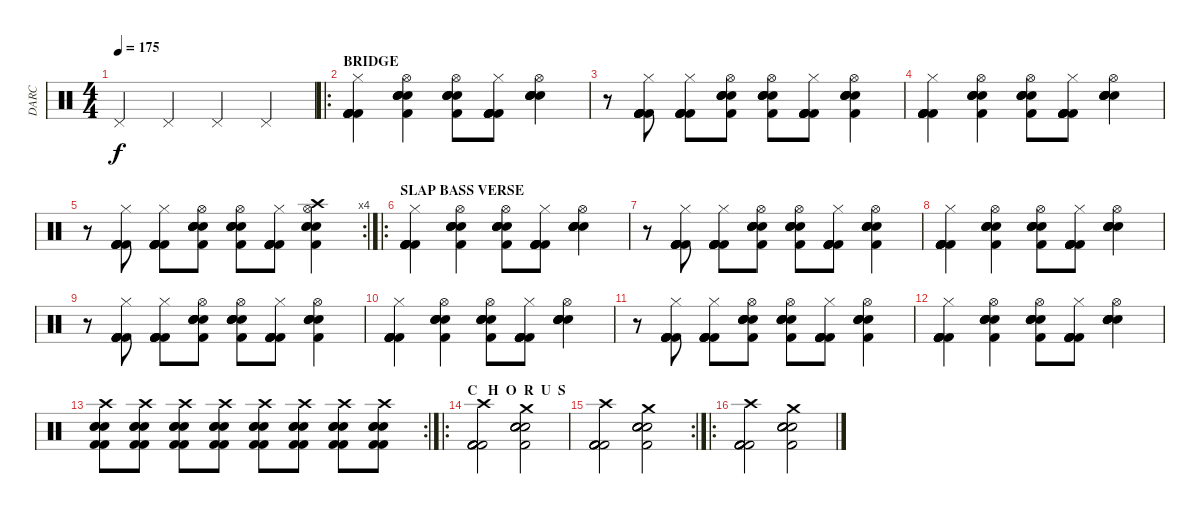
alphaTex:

\track ("DARC" "DARC") {instrument percussion}
\staff {score}
\articulation defaults
\ts (4 4)
\tempo 175
\clef neutral
\ks c "Pedal Hi-Hat (hit)".4{dy f} "Pedal Hi-Hat (hit)".4 "Pedal Hi-Hat (hit)".4 "Pedal Hi-Hat (hit)".4
|
\ro
\section ("" "BRIDGE")
("Kick (hit) 2" "Kick (hit) 2" "Kick (hit) 2" "Kick (hit) 2" "Hi-Hat (closed)" "Kick (hit) 2").4 ("Electric Snare (hit)" "Electric Snare (hit)" "Electric Snare (hit)" "Kick (hit) 2" "Hi-Hat (open)" "Electric Snare (hit)").4 ("Electric Snare (hit)" "Kick (hit) 2" "Electric Snare (hit)" "Electric Snare (hit)" "Hi-Hat (open)" "Electric Snare (hit)").8 ("Kick (hit) 2" "Kick (hit) 2" "Kick (hit) 2" "Kick (hit) 2" "Hi-Hat (closed)" "Kick (hit) 2").8 ("Electric Snare (hit)" "Electric Snare (hit)" "Electric Snare (hit)" "Electric Snare (hit)" "Hi-Hat (open)" "Electric Snare (hit)").4 |
r.8 ("Kick (hit) 2" "Kick (hit) 2" "Kick (hit) 2" "Kick (hit) 2" "Hi-Hat (closed)" "Kick (hit) 2").8 ("Kick (hit) 2" "Kick (hit) 2" "Kick (hit) 2" "Kick (hit) 2" "Hi-Hat (closed)" "Kick (hit) 2").8 ("Kick (hit) 2" "Electric Snare (hit)" "Electric Snare (hit)" "Electric Snare (hit)" "Hi-Hat (open)" "Electric Snare (hit)").8 ("Kick (hit) 2" "Electric Snare (hit)" "Electric Snare (hit)" "Electric Snare (hit)" "Hi-Hat (open)" "Electric Snare (hit)").8 ("Kick (hit) 2" "Kick (hit) 2" "Kick (hit) 2" "Kick (hit) 2" "Hi-Hat (closed)" "Kick (hit) 2").8 ("Kick (hit) 2" "Electric Snare (hit)" "Electric Snare (hit)" "Electric Snare (hit)" "Hi-Hat (open)" "Electric Snare (hit)").4 |
("Kick (hit) 2" "Kick (hit) 2" "Kick (hit) 2" "Kick (hit) 2" "Hi-Hat (closed)" "Kick (hit) 2").4 ("Electric Snare (hit)" "Electric Snare (hit)" "Electric Snare (hit)" "Kick (hit) 2" "Hi-Hat (open)" "Electric Snare (hit)").4 ("Electric Snare (hit)" "Kick (hit) 2" "Electric Snare (hit)" "Electric Snare (hit)" "Hi-Hat (open)" "Electric Snare (hit)").8 ("Kick (hit) 2" "Kick (hit) 2" "Kick (hit) 2" "Kick (hit) 2" "Hi-Hat (closed)" "Kick (hit) 2").8 ("Electric Snare (hit)" "Electric Snare (hit)" "Electric Snare (hit)" "Electric Snare (hit)" "Hi-Hat (open)" "Electric Snare (hit)").4 |
\rc 4
r.8 ("Kick (hit) 2" "Kick (hit) 2" "Kick (hit) 2" "Kick (hit) 2" "Hi-Hat (closed)" "Kick (hit) 2").8 ("Kick (hit) 2" "Kick (hit) 2" "Kick (hit) 2" "Kick (hit) 2" "Hi-Hat (closed)" "Kick (hit) 2").8 ("Kick (hit) 2" "Electric Snare (hit)" "Electric Snare (hit)" "Electric Snare (hit)" "Hi-Hat (open)" "Electric Snare (hit)").8 ("Kick (hit) 2" "Electric Snare (hit)" "Electric Snare (hit)" "Electric Snare (hit)" "Hi-Hat (open)" "Electric Snare (hit)").8 ("Kick (hit) 2" "Kick (hit) 2" "Kick (hit) 2" "Kick (hit) 2" "Hi-Hat (closed)" "Kick (hit) 2").8 ("Crash high (hit)" "Kick (hit) 2" "Electric Snare (hit)" "Electric Snare (hit)" "Hi-Hat (open)" "Electric Snare (hit)").4 |
\ro
\section ("" "SLAP BASS VERSE")
("Kick (hit) 2" "Kick (hit) 2" "Kick (hit) 2" "Kick (hit) 2" "Hi-Hat (closed)" "Kick (hit) 2").4 ("Electric Snare (hit)" "Electric Snare (hit)" "Electric Snare (hit)" "Kick (hit) 2" "Hi-Hat (open)" "Electric Snare (hit)").4 ("Electric Snare (hit)" "Kick (hit) 2" "Electric Snare (hit)" "Electric Snare (hit)" "Hi-Hat (open)" "Electric Snare (hit)").8 ("Kick (hit) 2" "Kick (hit) 2" "Kick (hit) 2" "Kick (hit) 2" "Hi-Hat (closed)" "Kick (hit) 2").8 ("Electric Snare (hit)" "Electric Snare (hit)" "Electric Snare (hit)" "Electric Snare (hit)" "Hi-Hat (open)" "Electric Snare (hit)").4 |
r.8 ("Kick (hit) 2" "Kick (hit) 2" "Kick (hit) 2" "Kick (hit) 2" "Hi-Hat (closed)" "Kick (hit) 2").8 ("Kick (hit) 2" "Kick (hit) 2" "Kick (hit) 2" "Kick (hit) 2" "Hi-Hat (closed)" "Kick (hit) 2").8 ("Kick (hit) 2" "Electric Snare (hit)" "Electric Snare (hit)" "Electric Snare (hit)" "Hi-Hat (open)" "Electric Snare (hit)").8 ("Kick (hit) 2" "Electric Snare (hit)" "Electric Snare (hit)" "Electric Snare (hit)" "Hi-Hat (open)" "Electric Snare (hit)").8 ("Kick (hit) 2" "Kick (hit) 2" "Kick (hit) 2" "Kick (hit) 2" "Hi-Hat (closed)" "Kick (hit) 2").8 ("Kick (hit) 2" "Electric Snare (hit)" "Electric Snare (hit)" "Electric Snare (hit)" "Hi-Hat (open)" "Electric Snare (hit)").4 |
("Kick (hit) 2" "Kick (hit) 2" "Kick (hit) 2" "Kick (hit) 2" "Hi-Hat (closed)" "Kick (hit) 2").4 ("Electric Snare (hit)" "Electric Snare (hit)" "Electric Snare (hit)" "Kick (hit) 2" "Hi-Hat (open)" "Electric Snare (hit)").4 ("Electric Snare (hit)" "Kick (hit) 2" "Electric Snare (hit)" "Electric Snare (hit)" "Hi-Hat (open)" "Electric Snare (hit)").8 ("Kick (hit) 2" "Kick (hit) 2" "Kick (hit) 2" "Kick (hit) 2" "Hi-Hat (closed)" "Kick (hit) 2").8 ("Electric Snare (hit)" "Electric Snare (hit)" "Electric Snare (hit)" "Electric Snare (hit)" "Hi-Hat (open)" "Electric Snare (hit)").4 |
r.8 ("Kick (hit) 2" "Kick (hit) 2" "Kick (hit) 2" "Kick (hit) 2" "Hi-Hat (closed)" "Kick (hit) 2").8 ("Kick (hit) 2" "Kick (hit) 2" "Kick (hit) 2" "Kick (hit) 2" "Hi-Hat (closed)" "Kick (hit) 2").8 ("Kick (hit) 2" "Electric Snare (hit)" "Electric Snare (hit)" "Electric Snare (hit)" "Hi-Hat (open)" "Electric Snare (hit)").8 ("Kick (hit) 2" "Electric Snare (hit)" "Electric Snare (hit)" "Electric Snare (hit)" "Hi-Hat (open)" "Electric Snare (hit)").8 ("Kick (hit) 2" "Kick (hit) 2" "Kick (hit) 2" "Kick (hit) 2" "Hi-Hat (closed)" "Kick (hit) 2").8 ("Kick (hit) 2" "Electric Snare (hit)" "Electric Snare (hit)" "Electric Snare (hit)" "Hi-Hat (open)" "Electric Snare (hit)").4 |
("Kick (hit) 2" "Kick (hit) 2" "Kick (hit) 2" "Kick (hit) 2" "Hi-Hat (closed)" "Kick (hit) 2").4 ("Electric Snare (hit)" "Electric Snare (hit)" "Electric Snare (hit)" "Kick (hit) 2" "Hi-Hat (open)" "Electric Snare (hit)").4 ("Electric Snare (hit)" "Kick (hit) 2" "Electric Snare (hit)" "Electric Snare (hit)" "Hi-Hat (open)" "Electric Snare (hit)").8 ("Kick (hit) 2" "Kick (hit) 2" "Kick (hit) 2" "Kick (hit) 2" "Hi-Hat (closed)" "Kick (hit) 2").8 ("Electric Snare (hit)" "Electric Snare (hit)" "Electric Snare (hit)" "Electric Snare (hit)" "Hi-Hat (open)" "Electric Snare (hit)").4 |
r.8 ("Kick (hit) 2" "Kick (hit) 2" "Kick (hit) 2" "Kick (hit) 2" "Hi-Hat (closed)" "Kick (hit) 2").8 ("Kick (hit) 2" "Kick (hit) 2" "Kick (hit) 2" "Kick (hit) 2" "Hi-Hat (closed)" "Kick (hit) 2").8 ("Kick (hit) 2" "Electric Snare (hit)" "Electric Snare (hit)" "Electric Snare (hit)" "Hi-Hat (open)" "Electric Snare (hit)").8 ("Kick (hit) 2" "Electric Snare (hit)" "Electric Snare (hit)" "Electric Snare (hit)" "Hi-Hat (open)" "Electric Snare (hit)").8 ("Kick (hit) 2" "Kick (hit) 2" "Kick (hit) 2" "Kick (hit) 2" "Hi-Hat (closed)" "Kick (hit) 2").8 ("Kick (hit) 2" "Electric Snare (hit)" "Electric Snare (hit)" "Electric Snare (hit)" "Hi-Hat (open)" "Electric Snare (hit)").4 |
("Kick (hit) 2" "Kick (hit) 2" "Kick (hit) 2" "Kick (hit) 2" "Hi-Hat (closed)" "Kick (hit) 2").4 ("Electric Snare (hit)" "Electric Snare (hit)" "Electric Snare (hit)" "Kick (hit) 2" "Hi-Hat (open)" "Electric Snare (hit)").4 ("Electric Snare (hit)" "Kick (hit) 2" "Electric Snare (hit)" "Electric Snare (hit)" "Hi-Hat (open)" "Electric Snare (hit)").8 ("Kick (hit) 2" "Kick (hit) 2" "Kick (hit) 2" "Kick (hit) 2" "Hi-Hat (closed)" "Kick (hit) 2").8 ("Electric Snare (hit)" "Electric Snare (hit)" "Electric Snare (hit)" "Electric Snare (hit)" "Hi-Hat (open)" "Electric Snare (hit)").4 |
\rc 2
("Kick (hit) 2" "Electric Snare (hit)" "Electric Snare (hit)" "Kick (hit) 2" "Crash high (hit)" "Electric Snare (hit)").8 ("Kick (hit) 2" "Electric Snare (hit)" "Electric Snare (hit)" "Kick (hit) 2" "Crash high (hit)" "Electric Snare (hit)").8 ("Kick (hit) 2" "Electric Snare (hit)" "Electric Snare (hit)" "Kick (hit) 2" "Crash high (hit)" "Electric Snare (hit)").8 ("Kick (hit) 2" "Electric Snare (hit)" "Electric Snare (hit)" "Kick (hit) 2" "Crash high (hit)" "Electric Snare (hit)").8 ("Kick (hit) 2" "Electric Snare (hit)" "Electric Snare (hit)" "Kick (hit) 2" "Crash high (hit)" "Electric Snare (hit)").8 ("Kick (hit) 2" "Electric Snare (hit)" "Electric Snare (hit)" "Kick (hit) 2" "Crash high (hit)" "Electric Snare (hit)").8 ("Kick (hit) 2" "Electric Snare (hit)" "Electric Snare (hit)" "Kick (hit) 2" "Crash high (hit)" "Electric Snare (hit)").8 ("Kick (hit) 2" "Electric Snare (hit)" "Electric Snare (hit)" "Kick (hit) 2" "Crash high (hit)" "Electric Snare (hit)").8 |
\ro
\section ("" "C   H  O  R  U  S")
("Crash high (hit)" "Kick (hit) 2" "Kick (hit) 2" "Kick (hit) 2" "Kick (hit) 2" "Kick (hit) 2").2 ("Crash medium (hit)" "Kick (hit) 2" "Electric Snare (hit)" "Electric Snare (hit)" "Electric Snare (hit)" "Electric Snare (hit)").2 |
\rc 2
("Crash high (hit)" "Kick (hit) 2" "Kick (hit) 2" "Kick (hit) 2" "Kick (hit) 2" "Kick (hit) 2").2 ("Crash medium (hit)" "Kick (hit) 2" "Electric Snare (hit)" "Electric Snare (hit)" "Electric Snare (hit)" "Electric Snare (hit)").2 |
\ro
("Crash high (hit)" "Kick (hit) 2" "Kick (hit) 2" "Kick (hit) 2" "Kick (hit) 2" "Kick (hit) 2").2 ("Crash medium (hit)" "Kick (hit) 2" "Electric Snare (hit)" "Electric Snare (hit)" "Electric Snare (hit)" "Electric Snare (hit)").2
